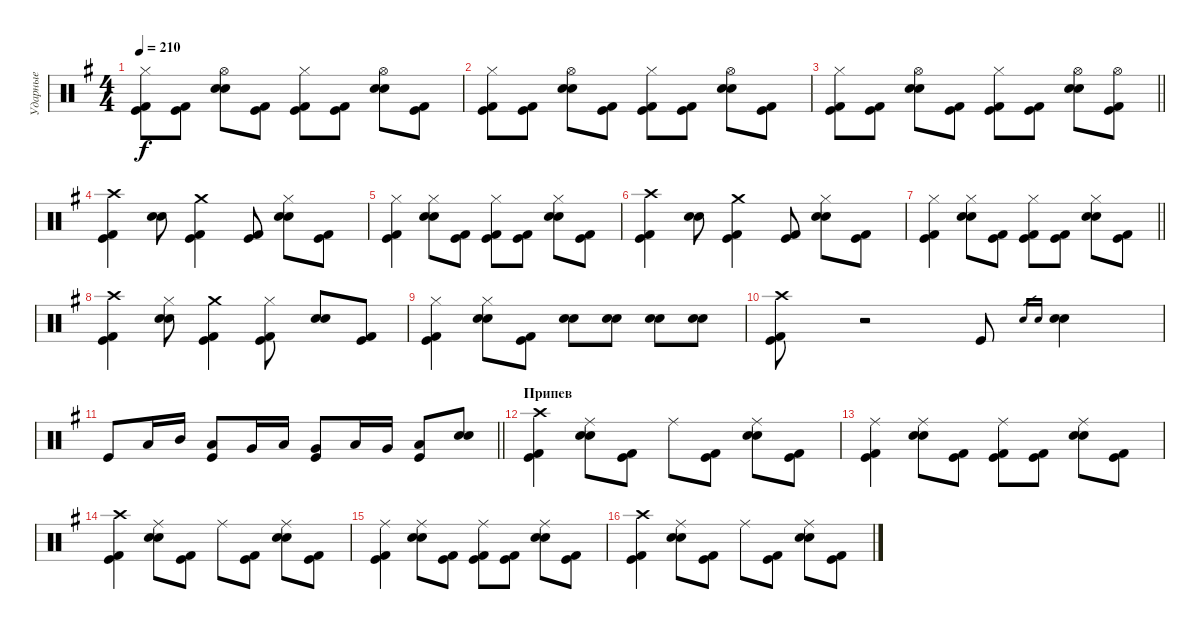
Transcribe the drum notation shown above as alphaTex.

\track ("Ударные" "Ударные") {instrument percussion}
\staff {score}
\articulation defaults
\ts (4 4)
\tempo 210
\clef neutral
\ks g
("Hi-Hat (closed)" "Kick (hit) 2" "Kick (hit)").8{dy f} ("Kick (hit) 2" "Kick (hit)").8 ("Hi-Hat (open)" "Electric Snare (hit)" "Snare (hit) 2").8 ("Kick (hit) 2" "Kick (hit)").8 ("Hi-Hat (closed)" "Kick (hit) 2" "Kick (hit)").8 ("Kick (hit) 2" "Kick (hit)").8 ("Hi-Hat (open)" "Electric Snare (hit)" "Snare (hit) 2").8 ("Kick (hit) 2" "Kick (hit)").8 |
("Hi-Hat (closed)" "Kick (hit) 2" "Kick (hit)").8 ("Kick (hit) 2" "Kick (hit)").8 ("Hi-Hat (open)" "Electric Snare (hit)" "Snare (hit) 2").8 ("Kick (hit) 2" "Kick (hit)").8 ("Hi-Hat (closed)" "Kick (hit) 2" "Kick (hit)").8 ("Kick (hit) 2" "Kick (hit)").8 ("Hi-Hat (open)" "Electric Snare (hit)" "Snare (hit) 2").8 ("Kick (hit) 2" "Kick (hit)").8 |
\barLineRight lightlight
("Hi-Hat (closed)" "Kick (hit) 2" "Kick (hit)").8 ("Kick (hit) 2" "Kick (hit)").8 ("Hi-Hat (open)" "Electric Snare (hit)" "Snare (hit) 2").8 ("Kick (hit) 2" "Kick (hit)").8 ("Hi-Hat (closed)" "Kick (hit) 2" "Kick (hit)").8 ("Kick (hit) 2" "Kick (hit)").8 ("Hi-Hat (open)" "Electric Snare (hit)" "Snare (hit) 2").8 ("Hi-Hat (open)" "Kick (hit) 2" "Kick (hit)").8 |
\section ("" "")
("Crash high (hit)" "Kick (hit) 2" "Kick (hit)").4 ("Electric Snare (hit)" "Snare (hit) 2").8 ("Crash medium (hit)" "Kick (hit) 2" "Kick (hit)").4 ("Kick (hit) 2" "Kick (hit)").8 ("Hi-Hat (closed)" "Electric Snare (hit)" "Snare (hit) 2").8 ("Kick (hit) 2" "Kick (hit)").8 |
("Hi-Hat (closed)" "Kick (hit) 2" "Kick (hit)").4 ("Hi-Hat (closed)" "Electric Snare (hit)" "Snare (hit) 2").8 ("Kick (hit) 2" "Kick (hit)").8 ("Hi-Hat (closed)" "Kick (hit) 2" "Kick (hit)").8 ("Kick (hit) 2" "Kick (hit)").8 ("Hi-Hat (closed)" "Electric Snare (hit)" "Snare (hit) 2").8 ("Kick (hit) 2" "Kick (hit)").8 |
("Crash high (hit)" "Kick (hit) 2" "Kick (hit)").4 ("Electric Snare (hit)" "Snare (hit) 2").8 ("Crash medium (hit)" "Kick (hit) 2" "Kick (hit)").4 ("Kick (hit) 2" "Kick (hit)").8 ("Hi-Hat (closed)" "Electric Snare (hit)" "Snare (hit) 2").8 ("Kick (hit) 2" "Kick (hit)").8 |
\barLineRight lightlight
("Hi-Hat (closed)" "Kick (hit) 2" "Kick (hit)").4 ("Hi-Hat (closed)" "Electric Snare (hit)" "Snare (hit) 2").8 ("Kick (hit) 2" "Kick (hit)").8 ("Hi-Hat (closed)" "Kick (hit) 2" "Kick (hit)").8 ("Kick (hit) 2" "Kick (hit)").8 ("Hi-Hat (closed)" "Electric Snare (hit)" "Snare (hit) 2").8 ("Kick (hit) 2" "Kick (hit)").8 |
("Crash high (hit)" "Kick (hit) 2" "Kick (hit)").4 ("Hi-Hat (closed)" "Electric Snare (hit)" "Snare (hit) 2").8 ("Crash medium (hit)" "Kick (hit) 2" "Kick (hit)").4 ("Hi-Hat (closed)" "Kick (hit) 2" "Kick (hit)").8 ("Electric Snare (hit)" "Snare (hit) 2").8 ("Kick (hit) 2" "Kick (hit)").8 |
("Hi-Hat (closed)" "Kick (hit) 2" "Kick (hit)").4 ("Hi-Hat (closed)" "Electric Snare (hit)" "Snare (hit) 2").8 ("Kick (hit) 2" "Kick (hit)").8 ("Electric Snare (hit)" "Snare (hit) 2").8 ("Electric Snare (hit)" "Snare (hit) 2").8 ("Electric Snare (hit)" "Snare (hit) 2").8 ("Electric Snare (hit)" "Snare (hit) 2").8 |
("Crash high (hit)" "Kick (hit) 2" "Kick (hit)").8 r.2 "Kick (hit)".8 "Electric Snare (hit)".16{gr} "Snare (hit) 2".16{gr} ("Electric Snare (hit)" "Snare (hit) 2").4 |
\barLineRight lightlight "Kick (hit)".8 "Low Tom (hit)".16 "Mid Tom (hit)".16
("Low Tom (hit)" "Kick (hit)").8 "Very Low Tom (hit)".16 "Low Tom (hit)".16 ("Very Low Tom (hit)" "Kick (hit)").8 "Low Floor Tom (hit)".16 "Very Low Tom (hit)".16 ("Low Floor Tom (hit)" "Kick (hit)").8 ("Electric Snare (hit)" "Snare (hit) 2").8 |
\section ("" "Припев")
("Crash high (hit)" "Kick (hit) 2" "Kick (hit)").4 ("Ride (middle)" "Electric Snare (hit)" "Snare (hit) 2").8 ("Kick (hit) 2" "Kick (hit)").8 "Ride (middle)".8 ("Kick (hit) 2" "Kick (hit)").8 ("Ride (middle)" "Electric Snare (hit)" "Snare (hit) 2").8 ("Kick (hit) 2" "Kick (hit)").8 |
("Ride (middle)" "Kick (hit) 2" "Kick (hit)").4 ("Ride (middle)" "Electric Snare (hit)" "Snare (hit) 2").8 ("Kick (hit) 2" "Kick (hit)").8 ("Ride (middle)" "Kick (hit) 2" "Kick (hit)").8 ("Kick (hit) 2" "Kick (hit)").8 ("Ride (middle)" "Electric Snare (hit)" "Snare (hit) 2").8 ("Kick (hit) 2" "Kick (hit)").8 |
("Crash high (hit)" "Kick (hit) 2" "Kick (hit)").4 ("Ride (middle)" "Electric Snare (hit)" "Snare (hit) 2").8 ("Kick (hit) 2" "Kick (hit)").8 "Ride (middle)".8 ("Kick (hit) 2" "Kick (hit)").8 ("Ride (middle)" "Electric Snare (hit)" "Snare (hit) 2").8 ("Kick (hit) 2" "Kick (hit)").8 |
("Ride (middle)" "Kick (hit) 2" "Kick (hit)").4 ("Ride (middle)" "Electric Snare (hit)" "Snare (hit) 2").8 ("Kick (hit) 2" "Kick (hit)").8 ("Ride (middle)" "Kick (hit) 2" "Kick (hit)").8 ("Kick (hit) 2" "Kick (hit)").8 ("Ride (middle)" "Electric Snare (hit)" "Snare (hit) 2").8 ("Kick (hit) 2" "Kick (hit)").8 |
("Crash high (hit)" "Kick (hit) 2" "Kick (hit)").4 ("Ride (middle)" "Electric Snare (hit)" "Snare (hit) 2").8 ("Kick (hit) 2" "Kick (hit)").8 "Ride (middle)".8 ("Kick (hit) 2" "Kick (hit)").8 ("Ride (middle)" "Electric Snare (hit)" "Snare (hit) 2").8 ("Kick (hit) 2" "Kick (hit)").8
